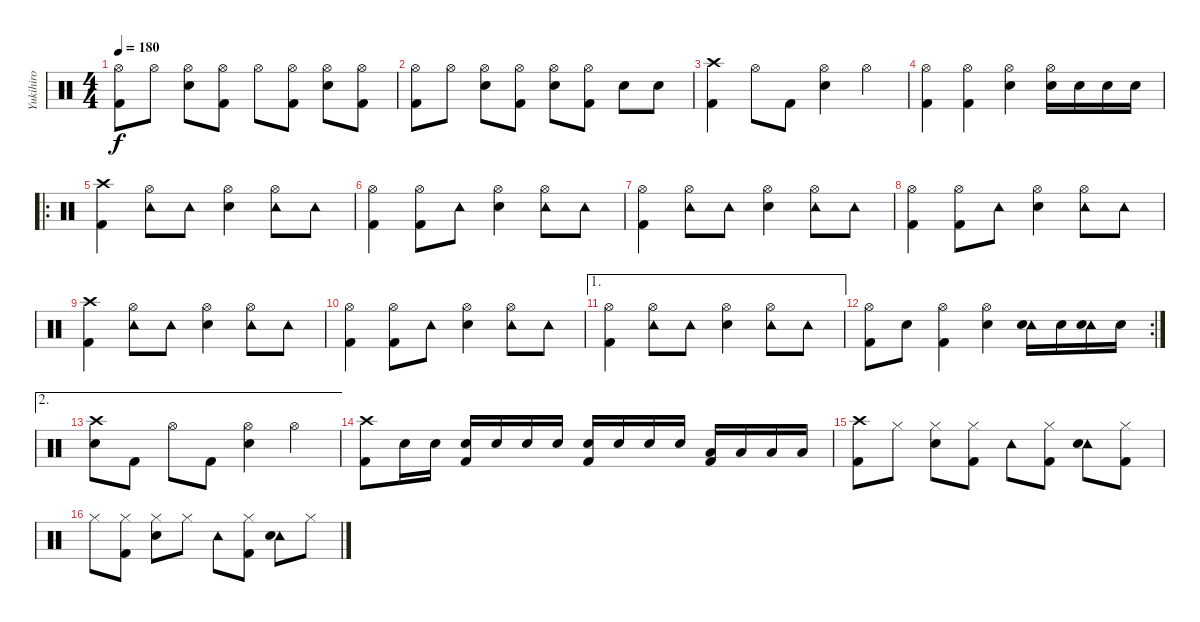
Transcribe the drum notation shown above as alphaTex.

\track ("Yukihiro" "Yukihiro") {instrument percussion}
\staff {score}
\articulation defaults
\ts (4 4)
\tempo 180
\clef neutral
\ks c
("Hi-Hat (open)" "Kick (hit) 2").8{dy f} "Hi-Hat (open)".8 ("Hi-Hat (open)" "Electric Snare (hit)").8 ("Hi-Hat (open)" "Kick (hit) 2").8 "Hi-Hat (open)".8 ("Hi-Hat (open)" "Kick (hit) 2").8 ("Hi-Hat (open)" "Electric Snare (hit)").8 ("Hi-Hat (open)" "Kick (hit) 2").8 |
("Hi-Hat (open)" "Kick (hit) 2").8 "Hi-Hat (open)".8 ("Hi-Hat (open)" "Electric Snare (hit)").8 ("Hi-Hat (open)" "Kick (hit) 2").8 ("Hi-Hat (open)" "Electric Snare (hit)").8 ("Hi-Hat (open)" "Kick (hit) 2").8 "Electric Snare (hit)".8 "Electric Snare (hit)".8 |
("Crash high (hit)" "Kick (hit) 2").4 "Hi-Hat (open)".8 "Kick (hit) 2".8 ("Hi-Hat (open)" "Electric Snare (hit)").4 "Hi-Hat (open)".4 |
("Hi-Hat (open)" "Kick (hit) 2").4 ("Hi-Hat (open)" "Kick (hit) 2").4 ("Hi-Hat (open)" "Electric Snare (hit)").4 ("Hi-Hat (open)" "Electric Snare (hit)").16 "Electric Snare (hit)".16 "Electric Snare (hit)".16 "Electric Snare (hit)".16 |
\ro
\section ("" "")
("Crash high (hit)" "Kick (hit) 2").4 ("Hi-Hat (open)" "Tambourine (hit)").8 "Tambourine (hit)".8 ("Hi-Hat (open)" "Electric Snare (hit)").4 ("Hi-Hat (open)" "Tambourine (hit)").8 "Tambourine (hit)".8 |
("Hi-Hat (open)" "Kick (hit) 2").4 ("Hi-Hat (open)" "Kick (hit) 2").8 "Tambourine (hit)".8 ("Hi-Hat (open)" "Electric Snare (hit)").4 ("Hi-Hat (open)" "Tambourine (hit)").8 "Tambourine (hit)".8 |
("Hi-Hat (open)" "Kick (hit) 2").4 ("Hi-Hat (open)" "Tambourine (hit)").8 "Tambourine (hit)".8 ("Hi-Hat (open)" "Electric Snare (hit)").4 ("Hi-Hat (open)" "Tambourine (hit)").8 "Tambourine (hit)".8 |
("Hi-Hat (open)" "Kick (hit) 2").4 ("Hi-Hat (open)" "Kick (hit) 2").8 "Tambourine (hit)".8 ("Hi-Hat (open)" "Electric Snare (hit)").4 ("Hi-Hat (open)" "Tambourine (hit)").8 "Tambourine (hit)".8 |
("Crash high (hit)" "Kick (hit) 2").4 ("Hi-Hat (open)" "Tambourine (hit)").8 "Tambourine (hit)".8 ("Hi-Hat (open)" "Electric Snare (hit)").4 ("Hi-Hat (open)" "Tambourine (hit)").8 "Tambourine (hit)".8 |
("Hi-Hat (open)" "Kick (hit) 2").4 ("Hi-Hat (open)" "Kick (hit) 2").8 "Tambourine (hit)".8 ("Hi-Hat (open)" "Electric Snare (hit)").4 ("Hi-Hat (open)" "Tambourine (hit)").8 "Tambourine (hit)".8 |
\ae 1
("Hi-Hat (open)" "Kick (hit) 2").4 ("Hi-Hat (open)" "Tambourine (hit)").8 "Tambourine (hit)".8 ("Hi-Hat (open)" "Electric Snare (hit)").4 ("Hi-Hat (open)" "Tambourine (hit)").8 "Tambourine (hit)".8 |
\rc 2
("Hi-Hat (open)" "Kick (hit) 2").8 "Electric Snare (hit)".8 ("Hi-Hat (open)" "Kick (hit) 2").4 ("Hi-Hat (open)" "Electric Snare (hit)").4 ("Tambourine (hit)" "Electric Snare (hit)").16 "Electric Snare (hit)".16 ("Tambourine (hit)" "Electric Snare (hit)").16 "Electric Snare (hit)".16 |
\ae 2
("Crash high (hit)" "Electric Snare (hit)").8 "Kick (hit) 2".8 "Hi-Hat (open)".8 "Kick (hit) 2".8 ("Hi-Hat (open)" "Electric Snare (hit)").4 "Hi-Hat (open)".4 |
("Crash high (hit)" "Kick (hit) 2").8 "Electric Snare (hit)".16 "Electric Snare (hit)".16 ("Electric Snare (hit)" "Kick (hit) 2").16 "Electric Snare (hit)".16 "Electric Snare (hit)".16 "Electric Snare (hit)".16 ("Electric Snare (hit)" "Kick (hit) 2").16 "Electric Snare (hit)".16 "Electric Snare (hit)".16 "Electric Snare (hit)".16 ("Low Tom (hit)" "Kick (hit) 2").16 "Low Tom (hit)".16 "Low Tom (hit)".16 "Low Tom (hit)".16 |
("Crash high (hit)" "Kick (hit) 2").8 "Hi-Hat (closed)".8 ("Hi-Hat (closed)" "Electric Snare (hit)").8 ("Hi-Hat (closed)" "Kick (hit) 2").8 "Tambourine (hit)".8 ("Hi-Hat (closed)" "Kick (hit) 2").8 ("Tambourine (hit)" "Electric Snare (hit)").8 ("Hi-Hat (closed)" "Kick (hit) 2").8 |
"Hi-Hat (closed)".8 ("Hi-Hat (closed)" "Kick (hit) 2").8 ("Hi-Hat (closed)" "Electric Snare (hit)").8 "Hi-Hat (closed)".8 "Tambourine (hit)".8 ("Hi-Hat (closed)" "Kick (hit) 2").8 ("Tambourine (hit)" "Electric Snare (hit)").8 "Hi-Hat (closed)".8
